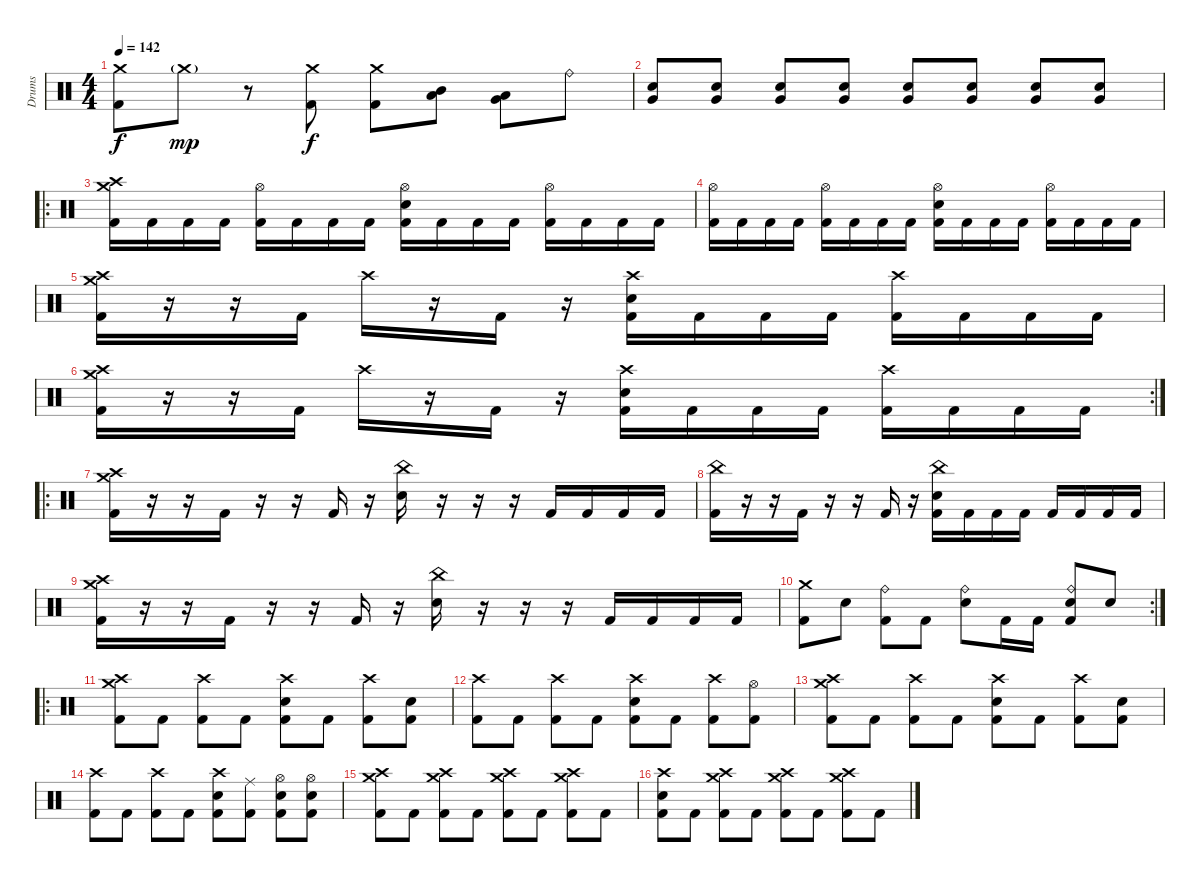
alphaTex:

\track ("Drums" "Drums") {instrument percussion}
\staff {score}
\articulation defaults
\ts (4 4)
\tempo 142
\clef neutral
\ks c
("Crash medium (hit)" "Kick (hit) 2").8{dy f} "Crash medium (hit)"{g}.8{dy mp} r.8 ("Crash medium (hit)" "Kick (hit) 2").8{dy f} ("Crash medium (hit)" "Kick (hit) 2").8 ("Mid Tom (hit)" "Low Tom (hit)").8 ("Very Low Tom (hit)" "Low Tom (hit)").8 "Ride (bell)".8 |
("Very Low Tom (hit)" "Electric Snare (hit)").8 ("Very Low Tom (hit)" "Electric Snare (hit)").8 ("Very Low Tom (hit)" "Electric Snare (hit)").8 ("Very Low Tom (hit)" "Electric Snare (hit)").8 ("Very Low Tom (hit)" "Electric Snare (hit)").8 ("Very Low Tom (hit)" "Electric Snare (hit)").8 ("Very Low Tom (hit)" "Electric Snare (hit)").8 ("Very Low Tom (hit)" "Electric Snare (hit)").8 |
\ro
("Crash medium (hit)" "Crash high (hit)" "Kick (hit) 2").16 "Kick (hit) 2".16 "Kick (hit) 2".16 "Kick (hit) 2".16 ("Hi-Hat (open)" "Kick (hit) 2").16 "Kick (hit) 2".16 "Kick (hit) 2".16 "Kick (hit) 2".16 ("Hi-Hat (open)" "Electric Snare (hit)" "Kick (hit) 2").16 "Kick (hit) 2".16 "Kick (hit) 2".16 "Kick (hit) 2".16 ("Hi-Hat (open)" "Kick (hit) 2").16 "Kick (hit) 2".16 "Kick (hit) 2".16 "Kick (hit) 2".16 |
("Hi-Hat (open)" "Kick (hit) 2").16 "Kick (hit) 2".16 "Kick (hit) 2".16 "Kick (hit) 2".16 ("Hi-Hat (open)" "Kick (hit) 2").16 "Kick (hit) 2".16 "Kick (hit) 2".16 "Kick (hit) 2".16 ("Hi-Hat (open)" "Electric Snare (hit)" "Kick (hit) 2").16 "Kick (hit) 2".16 "Kick (hit) 2".16 "Kick (hit) 2".16 ("Hi-Hat (open)" "Kick (hit) 2").16 "Kick (hit) 2".16 "Kick (hit) 2".16 "Kick (hit) 2".16 |
("Crash high (hit)" "Crash medium (hit)" "Kick (hit) 2").16 r.16 r.16 "Kick (hit) 2".16 "Crash high (hit)".16 r.16 "Kick (hit) 2".16 r.16 ("Crash high (hit)" "Electric Snare (hit)" "Kick (hit) 2").16 "Kick (hit) 2".16 "Kick (hit) 2".16 "Kick (hit) 2".16 ("Crash high (hit)" "Kick (hit) 2").16 "Kick (hit) 2".16 "Kick (hit) 2".16 "Kick (hit) 2".16 |
\rc 2
("Crash high (hit)" "Crash medium (hit)" "Kick (hit) 2").16 r.16 r.16 "Kick (hit) 2".16 "Crash high (hit)".16 r.16 "Kick (hit) 2".16 r.16 ("Crash high (hit)" "Electric Snare (hit)" "Kick (hit) 2").16 "Kick (hit) 2".16 "Kick (hit) 2".16 "Kick (hit) 2".16 ("Crash high (hit)" "Kick (hit) 2").16 "Kick (hit) 2".16 "Kick (hit) 2".16 "Kick (hit) 2".16 |
\ro
("Crash high (hit)" "Crash medium (hit)" "Kick (hit) 2").16 r.16 r.16 "Kick (hit) 2".16 r.16 r.16 "Kick (hit) 2".16 r.16 ("China (hit)" "Electric Snare (hit)").16 r.16 r.16 r.16 "Kick (hit) 2".16 "Kick (hit) 2".16 "Kick (hit) 2".16 "Kick (hit) 2".16 |
("China (hit)" "Kick (hit) 2").16 r.16 r.16 "Kick (hit) 2".16 r.16 r.16 "Kick (hit) 2".16 r.16 ("China (hit)" "Electric Snare (hit)" "Kick (hit) 2").16 "Kick (hit) 2".16 "Kick (hit) 2".16 "Kick (hit) 2".16 "Kick (hit) 2".16 "Kick (hit) 2".16 "Kick (hit) 2".16 "Kick (hit) 2".16 |
("Crash medium (hit)" "Crash high (hit)" "Kick (hit) 2").16 r.16 r.16 "Kick (hit) 2".16 r.16 r.16 "Kick (hit) 2".16 r.16 ("China (hit)" "Electric Snare (hit)").16 r.16 r.16 r.16 "Kick (hit) 2".16 "Kick (hit) 2".16 "Kick (hit) 2".16 "Kick (hit) 2".16 |
\rc 2
("Crash medium (hit)" "Kick (hit) 2").8 "Electric Snare (hit)".8 ("Ride (bell)" "Kick (hit) 2").8 "Kick (hit) 2".8 ("Ride (bell)" "Electric Snare (hit)").8 "Kick (hit) 2".16 "Kick (hit) 2".16 ("Ride (bell)" "Electric Snare (hit)" "Kick (hit) 2").8 "Electric Snare (hit)".8 |
\ro
("Crash medium (hit)" "Crash high (hit)" "Kick (hit) 2").8 "Kick (hit) 2".8 ("Crash high (hit)" "Kick (hit) 2").8 "Kick (hit) 2".8 ("Crash high (hit)" "Electric Snare (hit)" "Kick (hit) 2").8 "Kick (hit) 2".8 ("Crash high (hit)" "Kick (hit) 2").8 ("Electric Snare (hit)" "Kick (hit) 2").8 |
("Crash high (hit)" "Kick (hit) 2").8 "Kick (hit) 2".8 ("Crash high (hit)" "Kick (hit) 2").8 "Kick (hit) 2".8 ("Crash high (hit)" "Electric Snare (hit)" "Kick (hit) 2").8 "Kick (hit) 2".8 ("Crash high (hit)" "Kick (hit) 2").8 ("Hi-Hat (open)" "Kick (hit) 2").8 |
("Crash medium (hit)" "Crash high (hit)" "Kick (hit) 2").8 "Kick (hit) 2".8 ("Crash high (hit)" "Kick (hit) 2").8 "Kick (hit) 2".8 ("Crash high (hit)" "Electric Snare (hit)" "Kick (hit) 2").8 "Kick (hit) 2".8 ("Crash high (hit)" "Kick (hit) 2").8 ("Electric Snare (hit)" "Kick (hit) 2").8 |
("Crash high (hit)" "Kick (hit) 2").8 "Kick (hit) 2".8 ("Crash high (hit)" "Kick (hit) 2").8 "Kick (hit) 2".8 ("Crash high (hit)" "Electric Snare (hit)" "Kick (hit) 2").8 ("Ride (middle)" "Kick (hit) 2").8 ("Hi-Hat (open)" "Electric Snare (hit)" "Kick (hit) 2").8 ("Hi-Hat (open)" "Electric Snare (hit)" "Kick (hit) 2").8 |
("Crash medium (hit)" "Crash high (hit)" "Kick (hit) 2").8 "Kick (hit) 2".8 ("Crash medium (hit)" "Crash high (hit)" "Kick (hit) 2").8 "Kick (hit) 2".8 ("Crash medium (hit)" "Crash high (hit)" "Kick (hit) 2").8 "Kick (hit) 2".8 ("Crash medium (hit)" "Crash high (hit)" "Kick (hit) 2").8 "Kick (hit) 2".8 |
("Crash high (hit)" "Electric Snare (hit)" "Kick (hit) 2").8 "Kick (hit) 2".8 ("Crash medium (hit)" "Crash high (hit)" "Kick (hit) 2").8 "Kick (hit) 2".8 ("Crash medium (hit)" "Crash high (hit)" "Kick (hit) 2").8 "Kick (hit) 2".8 ("Crash medium (hit)" "Crash high (hit)" "Kick (hit) 2").8 "Kick (hit) 2".8
